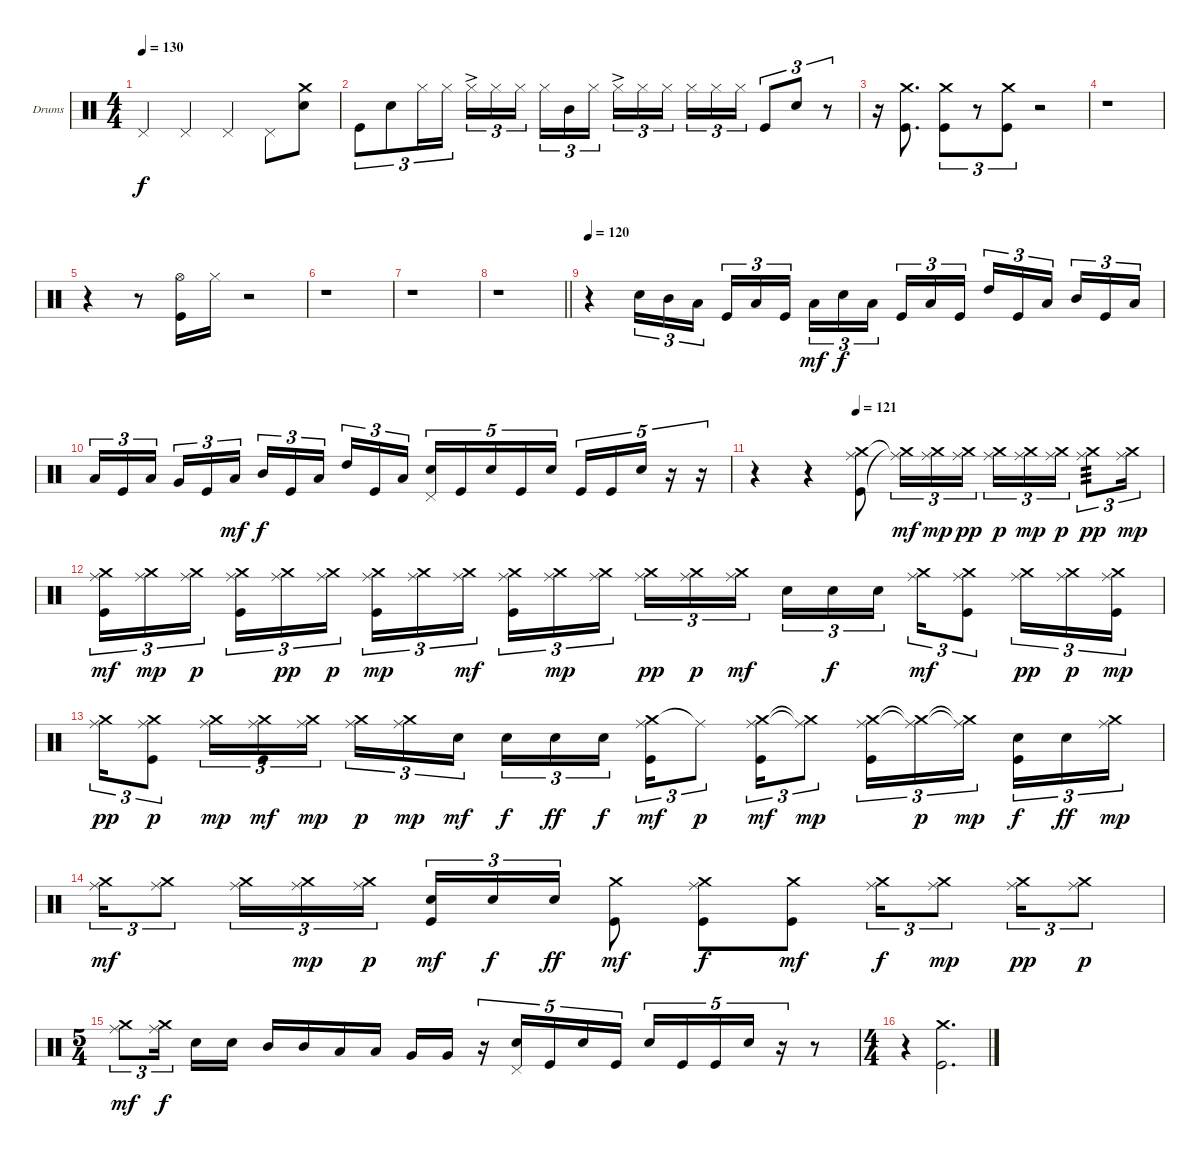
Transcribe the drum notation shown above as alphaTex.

\defaultSystemsLayout 4
\bracketExtendMode groupsimilarinstruments
\firstSystemTrackNameOrientation horizontal
\otherSystemsTrackNameOrientation horizontal
\track ("Drumkit" "Drums") {instrument percussion}
\staff {score}
\articulation defaults
\ts (4 4)
\tempo 130
\clef neutral
\ks c "Pedal Hi-Hat (hit)".4{dy f} "Pedal Hi-Hat (hit)".4 "Pedal Hi-Hat (hit)".4 "Pedal Hi-Hat (hit)".8
("Snare (hit) 2" "Crash medium (hit)").8 |
"Kick (hit)".8{tu (3 2)} "Snare (hit) 2".8{tu (3 2)} "Hi-Hat (closed)".16{tu (3 2)} "Hi-Hat (closed)".16{tu (3 2)} "Hi-Hat (closed)"{ac}.16{tu (3 2)} "Hi-Hat (closed)".16{tu (3 2)} "Hi-Hat (closed)".16{tu (3 2)} "Hi-Hat (closed)".16{tu (3 2)} "Mid Tom (hit)".16{tu (3 2)} "Hi-Hat (closed)".16{tu (3 2)} "Hi-Hat (closed)"{ac}.16{tu (3 2)} "Hi-Hat (closed)".16{tu (3 2)} "Hi-Hat (closed)".16{tu (3 2)} "Hi-Hat (closed)".16{tu (3 2)} "Hi-Hat (closed)".16{tu (3 2)} "Hi-Hat (closed)".16{tu (3 2)} "Kick (hit)".8{tu (3 2)} "Snare (hit) 2".8{tu (3 2)} r.8{tu (3 2)} |
r.16 ("Kick (hit)" "Crash medium (hit)").8{d} ("Kick (hit)" "Crash medium (hit)").8{tu (3 2)} r.8{tu (3 2)} ("Kick (hit)" "Crash medium (hit)").8{tu (3 2)} r.2 |
r.1 |
r.4 r.8 ("Kick (hit)" "Hi-Hat (open)").16 "Hi-Hat (closed)".16 r.2 |
r.1 |
r.1 |
\barLineRight lightlight
r.1 |
\tempo 120
r.4 "Snare (hit) 2".16{tu (3 2)} "Mid Tom (hit)".16{tu (3 2)} "Low Tom (hit)".16{tu (3 2)} "Kick (hit)".16{tu (3 2)} "Low Tom (hit)".16{tu (3 2)} "Kick (hit)".16{tu (3 2)} "Low Tom (hit)".16{tu (3 2) dy mf} "Snare (hit) 2".16{tu (3 2) dy f} "Low Tom (hit)".16{tu (3 2)} "Kick (hit)".16{tu (3 2)} "Low Tom (hit)".16{tu (3 2)} "Kick (hit)".16{tu (3 2)} "High Tom (hit)".16{tu (3 2)} "Kick (hit)".16{tu (3 2)} "Low Tom (hit)".16{tu (3 2)} "Mid Tom (hit)".16{tu (3 2)} "Kick (hit)".16{tu (3 2)} "Low Tom (hit)".16{tu (3 2)} |
"Low Tom (hit)".16{tu (3 2)} "Kick (hit)".16{tu (3 2)} "Low Tom (hit)".16{tu (3 2)} "Very Low Tom (hit)".16{tu (3 2)} "Kick (hit)".16{tu (3 2)} "Low Tom (hit)".16{tu (3 2) dy mf} "Mid Tom (hit)".16{tu (3 2) dy f} "Kick (hit)".16{tu (3 2)} "Low Tom (hit)".16{tu (3 2)} "High Tom (hit)".16{tu (3 2)} "Kick (hit)".16{tu (3 2)} "Low Tom (hit)".16{tu (3 2)} ("Snare (hit) 2" "Pedal Hi-Hat (hit)").16{tu (5 4)} "Kick (hit)".16{tu (5 4)} "Snare (hit) 2".16{tu (5 4)} "Kick (hit)".16{tu (5 4)} "Snare (hit) 2".16{tu (5 4)} "Kick (hit)".16{tu (5 4)} "Kick (hit)".16{tu (5 4)} "Snare (hit) 2".16{tu (5 4)} r.16{tu (5 4)} r.16{tu (5 4)} |
\tempo (121 0.25)
r.4 r.4 ("Kick (hit)" "Crash medium (hit)" "Ride (middle)").8 ("Crash medium (hit)"{t} "Ride (middle)"{t}).16{tu (3 2) dy mf} ("Crash medium (hit)" "Ride (middle)").16{tu (3 2) dy mp} ("Crash medium (hit)" "Ride (middle)").16{tu (3 2) dy pp} ("Crash medium (hit)" "Ride (middle)").16{tu (3 2) dy p} ("Crash medium (hit)" "Ride (middle)").16{tu (3 2) dy mp} ("Crash medium (hit)" "Ride (middle)").16{tu (3 2) dy p} ("Crash medium (hit)" "Ride (middle)").8{tu (3 2) tp 3 dy pp} ("Crash medium (hit)" "Ride (middle)").16{tu (3 2) dy mp} |
("Crash medium (hit)" "Ride (middle)" "Kick (hit)").16{tu (3 2) dy mf} ("Crash medium (hit)" "Ride (middle)").16{tu (3 2) dy mp} ("Crash medium (hit)" "Ride (middle)").16{tu (3 2) dy p} ("Crash medium (hit)" "Ride (middle)" "Kick (hit)").16{tu (3 2)} ("Crash medium (hit)" "Ride (middle)").16{tu (3 2) dy pp} ("Crash medium (hit)" "Ride (middle)").16{tu (3 2) dy p} ("Crash medium (hit)" "Ride (middle)" "Kick (hit)").16{tu (3 2) dy mp} ("Crash medium (hit)" "Ride (middle)").16{tu (3 2)} ("Crash medium (hit)" "Ride (middle)").16{tu (3 2) dy mf} ("Crash medium (hit)" "Ride (middle)" "Kick (hit)").16{tu (3 2)} ("Crash medium (hit)" "Ride (middle)").16{tu (3 2) dy mp} ("Crash medium (hit)" "Ride (middle)").16{tu (3 2)} ("Crash medium (hit)" "Ride (middle)").16{tu (3 2) dy pp} ("Crash medium (hit)" "Ride (middle)").16{tu (3 2) dy p} ("Crash medium (hit)" "Ride (middle)").16{tu (3 2) dy mf} "Snare (hit) 2".16{tu (3 2)} "Snare (hit) 2".16{tu (3 2) dy f} "Snare (hit) 2".16{tu (3 2)} ("Crash medium (hit)" "Ride (middle)").16{tu (3 2) dy mf} ("Crash medium (hit)" "Ride (middle)" "Kick (hit)").8{tu (3 2)} ("Crash medium (hit)" "Ride (middle)").16{tu (3 2) dy pp} ("Crash medium (hit)" "Ride (middle)").16{tu (3 2) dy p} ("Crash medium (hit)" "Ride (middle)" "Kick (hit)").16{tu (3 2) dy mp} |
("Crash medium (hit)" "Ride (middle)").16{tu (3 2) dy pp} ("Crash medium (hit)" "Ride (middle)" "Kick (hit)").8{tu (3 2) dy p} ("Crash medium (hit)" "Ride (middle)").16{tu (3 2) dy mp} ("Crash medium (hit)" "Ride (middle)" "Kick (hit)").16{tu (3 2) dy mf} ("Crash medium (hit)" "Ride (middle)").16{tu (3 2) dy mp} ("Crash medium (hit)" "Ride (middle)").16{tu (3 2) dy p} ("Crash medium (hit)" "Ride (middle)").16{tu (3 2) dy mp} "Snare (hit) 2".16{tu (3 2) dy mf} "Snare (hit) 2".16{tu (3 2) dy f} "Snare (hit) 2".16{tu (3 2) dy ff} "Snare (hit) 2".16{tu (3 2) dy f} ("Crash medium (hit)" "Ride (middle)" "Kick (hit)").16{tu (3 2) dy mf} "Ride (middle)"{t}.8{tu (3 2) dy p} ("Crash medium (hit)" "Ride (middle)" "Kick (hit)").16{tu (3 2) dy mf} ("Crash medium (hit)"{t} "Ride (middle)"{t}).8{tu (3 2) dy mp} ("Crash medium (hit)" "Ride (middle)" "Kick (hit)").16{tu (3 2)} ("Crash medium (hit)"{t} "Ride (middle)"{t}).16{tu (3 2) dy p} ("Crash medium (hit)"{t} "Ride (middle)"{t}).16{tu (3 2) dy mp} ("Snare (hit) 2" "Kick (hit)").16{tu (3 2) dy f} "Snare (hit) 2".16{tu (3 2) dy ff} ("Crash medium (hit)" "Ride (middle)").16{tu (3 2) dy mp} |
("Crash medium (hit)" "Ride (middle)").16{tu (3 2) dy mf} ("Crash medium (hit)" "Ride (middle)").8{tu (3 2)} ("Crash medium (hit)" "Ride (middle)").16{tu (3 2)} ("Crash medium (hit)" "Ride (middle)").16{tu (3 2) dy mp} ("Crash medium (hit)" "Ride (middle)").16{tu (3 2) dy p} ("Snare (hit) 2" "Kick (hit)").16{tu (3 2) dy mf} "Snare (hit) 2".16{tu (3 2) dy f} "Snare (hit) 2".16{tu (3 2) dy ff} ("Crash medium (hit)" "Kick (hit)").8{dy mf} ("Crash medium (hit)" "Ride (middle)" "Kick (hit)").8{dy f} ("Crash medium (hit)" "Kick (hit)").8{dy mf} ("Crash medium (hit)" "Ride (middle)").16{tu (3 2) dy f} ("Crash medium (hit)" "Ride (middle)").8{tu (3 2) dy mp} ("Crash medium (hit)" "Ride (middle)").16{tu (3 2) dy pp} ("Crash medium (hit)" "Ride (middle)").8{tu (3 2) dy p} |
\ts (5 4)
("Crash medium (hit)" "Ride (middle)").8{tu (3 2) dy mf} ("Crash medium (hit)" "Ride (middle)").16{tu (3 2) dy f} "Snare (hit) 2".16 "Snare (hit) 2".16 "Mid Tom (hit)".16 "Mid Tom (hit)".16 "Low Tom (hit)".16 "Low Tom (hit)".16 "Very Low Tom (hit)".16 "Very Low Tom (hit)".16 r.16{tu (5 4)} ("Snare (hit) 2" "Pedal Hi-Hat (hit)").16{tu (5 4)} "Kick (hit)".16{tu (5 4)} "Snare (hit) 2".16{tu (5 4)} "Kick (hit)".16{tu (5 4)} "Snare (hit) 2".16{tu (5 4)} "Kick (hit)".16{tu (5 4)} "Kick (hit)".16{tu (5 4)} "Snare (hit) 2".16{tu (5 4)} r.16{tu (5 4)} r.8 |
\ts (4 4)
r.4 ("Crash medium (hit)" "Kick (hit)").2{d}
